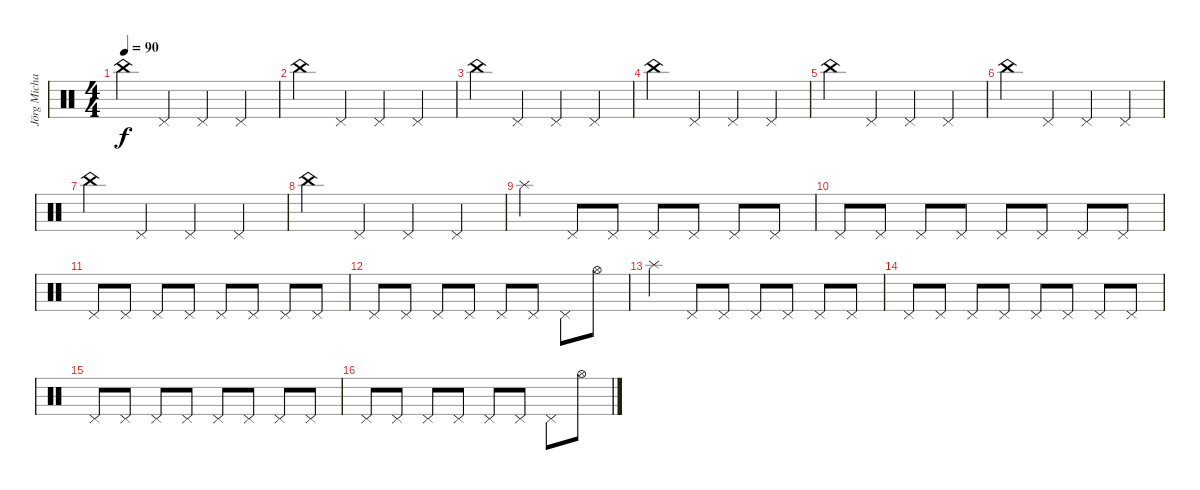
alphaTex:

\track ("Jörg Michael Drums" "Jörg Micha") {instrument percussion}
\staff {score}
\articulation defaults
\ts (4 4)
\tempo 90
\clef neutral
\ks c "China (hit)".4{dy f} "Pedal Hi-Hat (hit)".4 "Pedal Hi-Hat (hit)".4 "Pedal Hi-Hat (hit)".4
|
"China (hit)".4 "Pedal Hi-Hat (hit)".4 "Pedal Hi-Hat (hit)".4 "Pedal Hi-Hat (hit)".4 |
"China (hit)".4 "Pedal Hi-Hat (hit)".4 "Pedal Hi-Hat (hit)".4 "Pedal Hi-Hat (hit)".4 |
"China (hit)".4 "Pedal Hi-Hat (hit)".4 "Pedal Hi-Hat (hit)".4 "Pedal Hi-Hat (hit)".4 |
"China (hit)".4 "Pedal Hi-Hat (hit)".4 "Pedal Hi-Hat (hit)".4 "Pedal Hi-Hat (hit)".4 |
"China (hit)".4 "Pedal Hi-Hat (hit)".4 "Pedal Hi-Hat (hit)".4 "Pedal Hi-Hat (hit)".4 |
"China (hit)".4 "Pedal Hi-Hat (hit)".4 "Pedal Hi-Hat (hit)".4 "Pedal Hi-Hat (hit)".4 |
"China (hit)".4 "Pedal Hi-Hat (hit)".4 "Pedal Hi-Hat (hit)".4 "Pedal Hi-Hat (hit)".4 |
"Splash (hit)".4 "Pedal Hi-Hat (hit)".8 "Pedal Hi-Hat (hit)".8 "Pedal Hi-Hat (hit)".8 "Pedal Hi-Hat (hit)".8 "Pedal Hi-Hat (hit)".8 "Pedal Hi-Hat (hit)".8 |
"Pedal Hi-Hat (hit)".8 "Pedal Hi-Hat (hit)".8 "Pedal Hi-Hat (hit)".8 "Pedal Hi-Hat (hit)".8 "Pedal Hi-Hat (hit)".8 "Pedal Hi-Hat (hit)".8 "Pedal Hi-Hat (hit)".8 "Pedal Hi-Hat (hit)".8 |
"Pedal Hi-Hat (hit)".8 "Pedal Hi-Hat (hit)".8 "Pedal Hi-Hat (hit)".8 "Pedal Hi-Hat (hit)".8 "Pedal Hi-Hat (hit)".8 "Pedal Hi-Hat (hit)".8 "Pedal Hi-Hat (hit)".8 "Pedal Hi-Hat (hit)".8 |
"Pedal Hi-Hat (hit)".8 "Pedal Hi-Hat (hit)".8 "Pedal Hi-Hat (hit)".8 "Pedal Hi-Hat (hit)".8 "Pedal Hi-Hat (hit)".8 "Pedal Hi-Hat (hit)".8 "Pedal Hi-Hat (hit)".8 "Hi-Hat (open)".8 |
"Splash (hit)".4 "Pedal Hi-Hat (hit)".8 "Pedal Hi-Hat (hit)".8 "Pedal Hi-Hat (hit)".8 "Pedal Hi-Hat (hit)".8 "Pedal Hi-Hat (hit)".8 "Pedal Hi-Hat (hit)".8 |
"Pedal Hi-Hat (hit)".8 "Pedal Hi-Hat (hit)".8 "Pedal Hi-Hat (hit)".8 "Pedal Hi-Hat (hit)".8 "Pedal Hi-Hat (hit)".8 "Pedal Hi-Hat (hit)".8 "Pedal Hi-Hat (hit)".8 "Pedal Hi-Hat (hit)".8 |
"Pedal Hi-Hat (hit)".8 "Pedal Hi-Hat (hit)".8 "Pedal Hi-Hat (hit)".8 "Pedal Hi-Hat (hit)".8 "Pedal Hi-Hat (hit)".8 "Pedal Hi-Hat (hit)".8 "Pedal Hi-Hat (hit)".8 "Pedal Hi-Hat (hit)".8 |
"Pedal Hi-Hat (hit)".8 "Pedal Hi-Hat (hit)".8 "Pedal Hi-Hat (hit)".8 "Pedal Hi-Hat (hit)".8 "Pedal Hi-Hat (hit)".8 "Pedal Hi-Hat (hit)".8 "Pedal Hi-Hat (hit)".8 "Hi-Hat (open)".8
